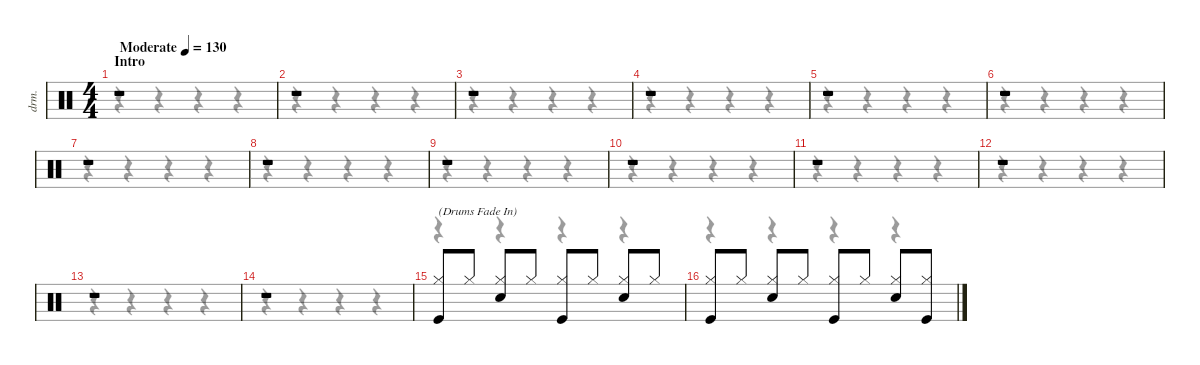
\defaultSystemsLayout 4
\hideDynamics
\bracketExtendMode nobrackets
\track ("Lars Ulrich - Drums" "drm.") {instrument percussion}
\staff {score}
\articulation defaults
\voice
\ts (4 4)
\beaming (8 2 2 2 2)
\section ("" "Intro")
\tempo (130 "Moderate")
\clef neutral
\ks c
r.1{dy p} |
r.1 |
r.1 |
r.1 |
r.1 |
r.1 |
r.1 |
r.1 |
r.1 |
r.1 |
r.1 |
r.1 |
r.1 |
r.1 |
("Hi-Hat (closed)" "Kick (hit)").8{txt "(Drums Fade In)"} "Hi-Hat (closed)".8 ("Hi-Hat (closed)" "Snare (hit) 2").8 "Hi-Hat (closed)".8 ("Hi-Hat (closed)" "Kick (hit)").8 "Hi-Hat (closed)".8 ("Hi-Hat (closed)" "Snare (hit) 2").8 "Hi-Hat (closed)".8 |
("Hi-Hat (closed)" "Kick (hit)").8 "Hi-Hat (closed)".8 ("Hi-Hat (closed)" "Snare (hit) 2").8 "Hi-Hat (closed)".8 ("Hi-Hat (closed)" "Kick (hit)").8 "Hi-Hat (closed)".8 ("Hi-Hat (closed)" "Snare (hit) 2").8 ("Hi-Hat (closed)" "Kick (hit)").8
\voice
\clef neutral
\ottava regular
\simile none
\ks c
r.4{dy mf} r.4 r.4 r.4 |
r.4 r.4 r.4 r.4 |
r.4 r.4 r.4 r.4 |
r.4 r.4 r.4 r.4 |
r.4 r.4 r.4 r.4 |
r.4 r.4 r.4 r.4 |
r.4 r.4 r.4 r.4 |
r.4 r.4 r.4 r.4 |
r.4 r.4 r.4 r.4 |
r.4 r.4 r.4 r.4 |
r.4 r.4 r.4 r.4 |
r.4 r.4 r.4 r.4 |
r.4 r.4 r.4 r.4 |
r.4 r.4 r.4 r.4 |
r.4 r.4 r.4 r.4 |
r.4 r.4 r.4 r.4
